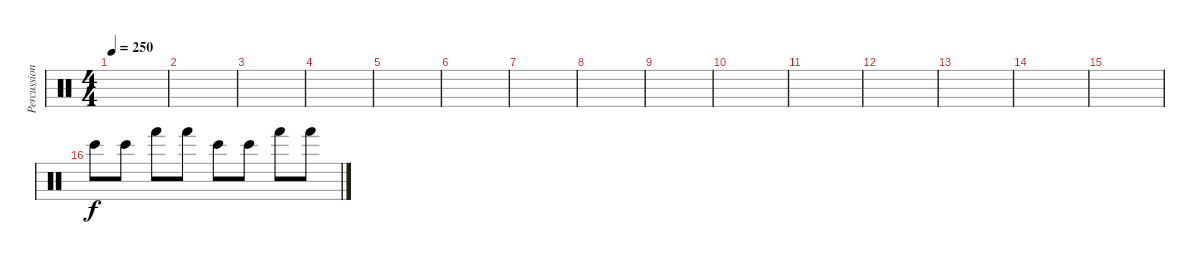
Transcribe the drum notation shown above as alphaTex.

\track ("Percussion" "Percussion") {instrument percussion}
\staff {score}
\articulation defaults
\ts (4 4)
\tempo 250
\clef neutral
\ks c
|
|
|
|
|
|
|
|
|
|
|
|
|
|
|
"Bongo High (hit)".8 "Bongo High (hit)".8 "Hand (hit)".8 "Hand (hit)".8 "Bongo High (hit)".8 "Bongo High (hit)".8 "Hand (hit)".8 "Hand (hit)".8
